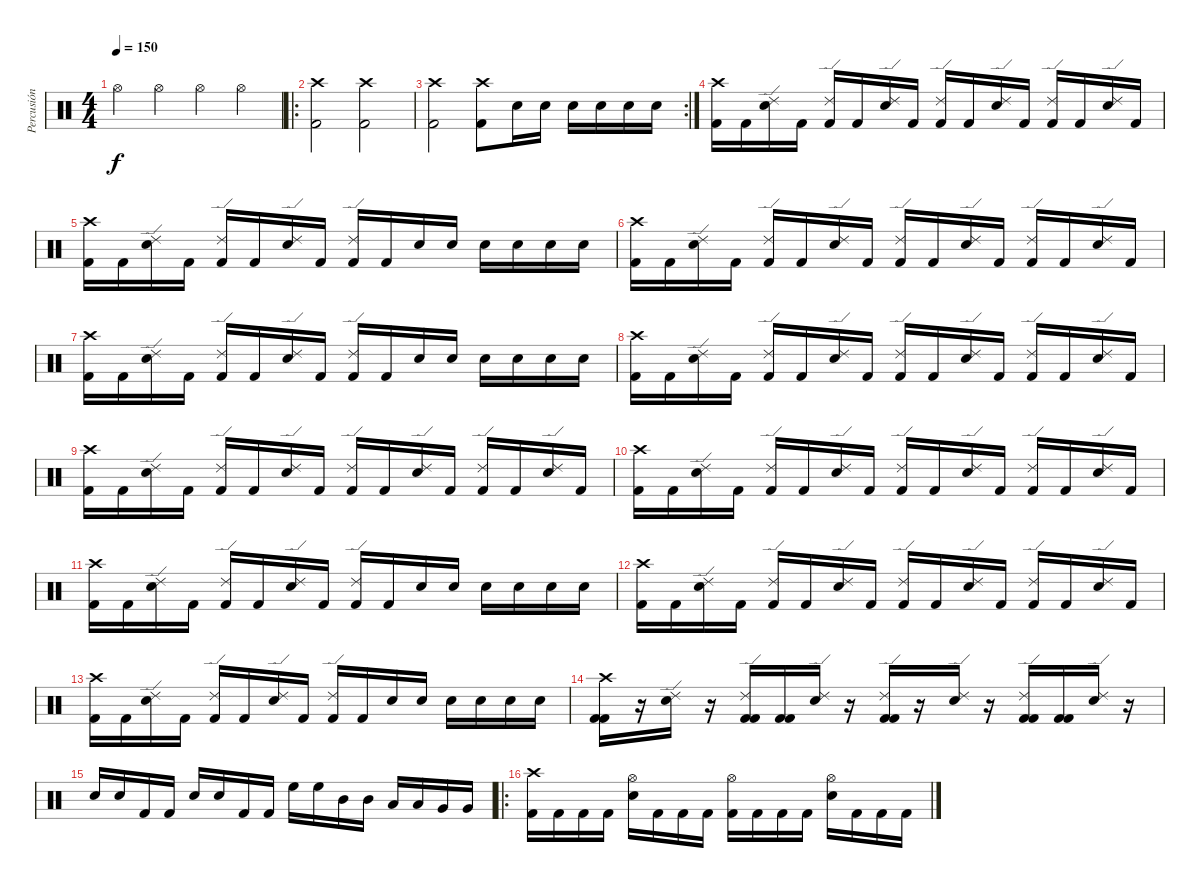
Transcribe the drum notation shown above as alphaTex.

\track ("Percusión" "Percusión") {instrument percussion}
\staff {score}
\articulation defaults
\ts (4 4)
\tempo 150
\clef neutral
\ks c "Hi-Hat (open)".4{dy f} "Hi-Hat (open)".4 "Hi-Hat (open)".4 "Hi-Hat (open)".4
|
\ro
("Crash high (hit)" "Kick (hit) 2").2 ("Crash high (hit)" "Kick (hit) 2").2 |
\rc 2
("Crash high (hit)" "Kick (hit) 2").2 ("Crash high (hit)" "Kick (hit) 2").8 "Electric Snare (hit)".16 "Electric Snare (hit)".16 "Electric Snare (hit)".16 "Electric Snare (hit)".16 "Electric Snare (hit)".16 "Electric Snare (hit)".16 |
("Crash high (hit)" "Kick (hit) 2").16 "Kick (hit) 2".16 ("Ride (edge) 2" "Electric Snare (hit)").16 "Kick (hit) 2".16 ("Ride (edge) 2" "Kick (hit) 2").16 "Kick (hit) 2".16 ("Ride (edge) 2" "Electric Snare (hit)").16 "Kick (hit) 2".16 ("Ride (edge) 2" "Kick (hit) 2").16 "Kick (hit) 2".16 ("Ride (edge) 2" "Electric Snare (hit)").16 "Kick (hit) 2".16 ("Ride (edge) 2" "Kick (hit) 2").16 "Kick (hit) 2".16 ("Ride (edge) 2" "Electric Snare (hit)").16 "Kick (hit) 2".16 |
("Crash high (hit)" "Kick (hit) 2").16 "Kick (hit) 2".16 ("Ride (edge) 2" "Electric Snare (hit)").16 "Kick (hit) 2".16 ("Ride (edge) 2" "Kick (hit) 2").16 "Kick (hit) 2".16 ("Ride (edge) 2" "Electric Snare (hit)").16 "Kick (hit) 2".16 ("Ride (edge) 2" "Kick (hit) 2").16 "Kick (hit) 2".16 "Electric Snare (hit)".16 "Electric Snare (hit)".16 "Electric Snare (hit)".16 "Electric Snare (hit)".16 "Electric Snare (hit)".16 "Electric Snare (hit)".16 |
("Crash high (hit)" "Kick (hit) 2").16 "Kick (hit) 2".16 ("Ride (edge) 2" "Electric Snare (hit)").16 "Kick (hit) 2".16 ("Ride (edge) 2" "Kick (hit) 2").16 "Kick (hit) 2".16 ("Ride (edge) 2" "Electric Snare (hit)").16 "Kick (hit) 2".16 ("Ride (edge) 2" "Kick (hit) 2").16 "Kick (hit) 2".16 ("Ride (edge) 2" "Electric Snare (hit)").16 "Kick (hit) 2".16 ("Ride (edge) 2" "Kick (hit) 2").16 "Kick (hit) 2".16 ("Ride (edge) 2" "Electric Snare (hit)").16 "Kick (hit) 2".16 |
("Crash high (hit)" "Kick (hit) 2").16 "Kick (hit) 2".16 ("Ride (edge) 2" "Electric Snare (hit)").16 "Kick (hit) 2".16 ("Ride (edge) 2" "Kick (hit) 2").16 "Kick (hit) 2".16 ("Ride (edge) 2" "Electric Snare (hit)").16 "Kick (hit) 2".16 ("Ride (edge) 2" "Kick (hit) 2").16 "Kick (hit) 2".16 "Electric Snare (hit)".16 "Electric Snare (hit)".16 "Electric Snare (hit)".16 "Electric Snare (hit)".16 "Electric Snare (hit)".16 "Electric Snare (hit)".16 |
("Crash high (hit)" "Kick (hit) 2").16 "Kick (hit) 2".16 ("Ride (edge) 2" "Electric Snare (hit)").16 "Kick (hit) 2".16 ("Ride (edge) 2" "Kick (hit) 2").16 "Kick (hit) 2".16 ("Ride (edge) 2" "Electric Snare (hit)").16 "Kick (hit) 2".16 ("Ride (edge) 2" "Kick (hit) 2").16 "Kick (hit) 2".16 ("Ride (edge) 2" "Electric Snare (hit)").16 "Kick (hit) 2".16 ("Ride (edge) 2" "Kick (hit) 2").16 "Kick (hit) 2".16 ("Ride (edge) 2" "Electric Snare (hit)").16 "Kick (hit) 2".16 |
("Crash high (hit)" "Kick (hit) 2").16 "Kick (hit) 2".16 ("Ride (edge) 2" "Electric Snare (hit)").16 "Kick (hit) 2".16 ("Ride (edge) 2" "Kick (hit) 2").16 "Kick (hit) 2".16 ("Ride (edge) 2" "Electric Snare (hit)").16 "Kick (hit) 2".16 ("Ride (edge) 2" "Kick (hit) 2").16 "Kick (hit) 2".16 ("Ride (edge) 2" "Electric Snare (hit)").16 "Kick (hit) 2".16 ("Ride (edge) 2" "Kick (hit) 2").16 "Kick (hit) 2".16 ("Ride (edge) 2" "Electric Snare (hit)").16 "Kick (hit) 2".16 |
("Crash high (hit)" "Kick (hit) 2").16 "Kick (hit) 2".16 ("Ride (edge) 2" "Electric Snare (hit)").16 "Kick (hit) 2".16 ("Ride (edge) 2" "Kick (hit) 2").16 "Kick (hit) 2".16 ("Ride (edge) 2" "Electric Snare (hit)").16 "Kick (hit) 2".16 ("Ride (edge) 2" "Kick (hit) 2").16 "Kick (hit) 2".16 ("Ride (edge) 2" "Electric Snare (hit)").16 "Kick (hit) 2".16 ("Ride (edge) 2" "Kick (hit) 2").16 "Kick (hit) 2".16 ("Ride (edge) 2" "Electric Snare (hit)").16 "Kick (hit) 2".16 |
("Crash high (hit)" "Kick (hit) 2").16 "Kick (hit) 2".16 ("Ride (edge) 2" "Electric Snare (hit)").16 "Kick (hit) 2".16 ("Ride (edge) 2" "Kick (hit) 2").16 "Kick (hit) 2".16 ("Ride (edge) 2" "Electric Snare (hit)").16 "Kick (hit) 2".16 ("Ride (edge) 2" "Kick (hit) 2").16 "Kick (hit) 2".16 "Electric Snare (hit)".16 "Electric Snare (hit)".16 "Electric Snare (hit)".16 "Electric Snare (hit)".16 "Electric Snare (hit)".16 "Electric Snare (hit)".16 |
("Crash high (hit)" "Kick (hit) 2").16 "Kick (hit) 2".16 ("Ride (edge) 2" "Electric Snare (hit)").16 "Kick (hit) 2".16 ("Ride (edge) 2" "Kick (hit) 2").16 "Kick (hit) 2".16 ("Ride (edge) 2" "Electric Snare (hit)").16 "Kick (hit) 2".16 ("Ride (edge) 2" "Kick (hit) 2").16 "Kick (hit) 2".16 ("Ride (edge) 2" "Electric Snare (hit)").16 "Kick (hit) 2".16 ("Ride (edge) 2" "Kick (hit) 2").16 "Kick (hit) 2".16 ("Ride (edge) 2" "Electric Snare (hit)").16 "Kick (hit) 2".16 |
("Crash high (hit)" "Kick (hit) 2").16 "Kick (hit) 2".16 ("Ride (edge) 2" "Electric Snare (hit)").16 "Kick (hit) 2".16 ("Ride (edge) 2" "Kick (hit) 2").16 "Kick (hit) 2".16 ("Ride (edge) 2" "Electric Snare (hit)").16 "Kick (hit) 2".16 ("Ride (edge) 2" "Kick (hit) 2").16 "Kick (hit) 2".16 "Electric Snare (hit)".16 "Electric Snare (hit)".16 "Electric Snare (hit)".16 "Electric Snare (hit)".16 "Electric Snare (hit)".16 "Electric Snare (hit)".16 |
("Crash high (hit)" "Kick (hit) 2" "Kick (hit) 2").16 r.16 ("Ride (edge) 2" "Electric Snare (hit)").16 r.16 ("Ride (edge) 2" "Kick (hit) 2" "Kick (hit) 2").16 ("Kick (hit) 2" "Kick (hit) 2").16 ("Ride (edge) 2" "Electric Snare (hit)").16 r.16 ("Ride (edge) 2" "Kick (hit) 2" "Kick (hit) 2").16 r.16 ("Ride (edge) 2" "Electric Snare (hit)").16 r.16 ("Ride (edge) 2" "Kick (hit) 2" "Kick (hit) 2").16 ("Kick (hit) 2" "Kick (hit) 2").16 ("Ride (edge) 2" "Electric Snare (hit)").16 r.16 |
"Electric Snare (hit)".16 "Electric Snare (hit)".16 "Kick (hit) 2".16 "Kick (hit) 2".16 "Electric Snare (hit)".16 "Electric Snare (hit)".16 "Kick (hit) 2".16 "Kick (hit) 2".16 "High Floor Tom (hit)".16 "High Floor Tom (hit)".16 "Mid Tom (hit)".16 "Mid Tom (hit)".16 "Low Tom (hit)".16 "Low Tom (hit)".16 "Very Low Tom (hit)".16 "Very Low Tom (hit)".16 |
\ro
("Crash high (hit)" "Kick (hit) 2").16 "Kick (hit) 2".16 "Kick (hit) 2".16 "Kick (hit) 2".16 ("Hi-Hat (open)" "Electric Snare (hit)").16 "Kick (hit) 2".16 "Kick (hit) 2".16 "Kick (hit) 2".16 ("Hi-Hat (open)" "Kick (hit) 2").16 "Kick (hit) 2".16 "Kick (hit) 2".16 "Kick (hit) 2".16 ("Hi-Hat (open)" "Electric Snare (hit)").16 "Kick (hit) 2".16 "Kick (hit) 2".16 "Kick (hit) 2".16
